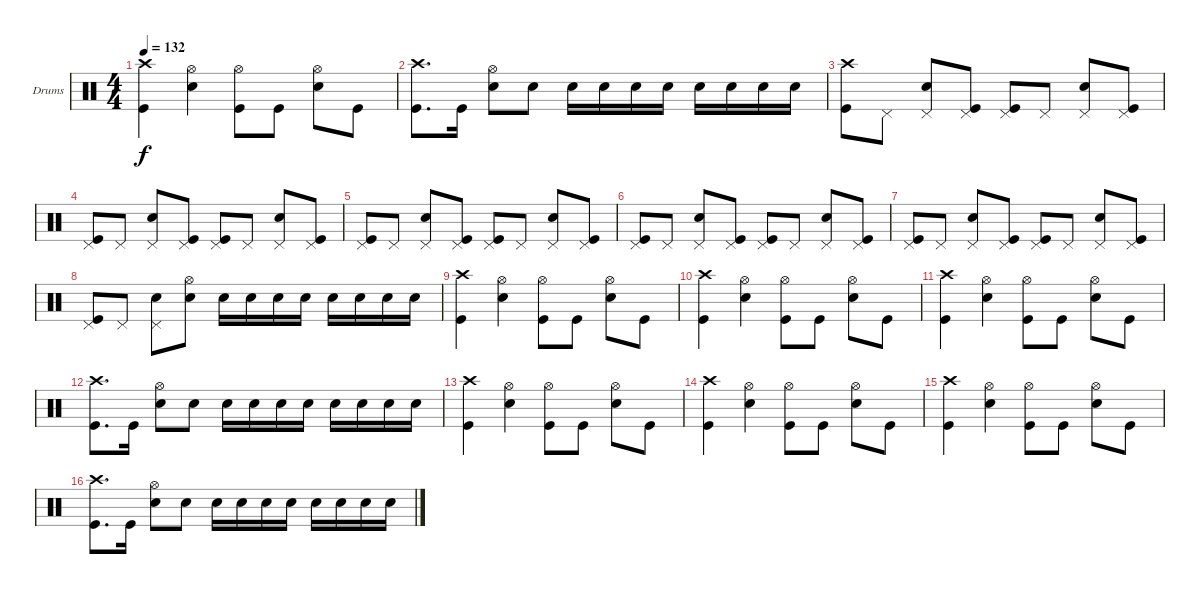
\defaultSystemsLayout 4
\bracketExtendMode groupsimilarinstruments
\firstSystemTrackNameOrientation horizontal
\otherSystemsTrackNameOrientation horizontal
\track ("Drumkit" "Drums") {instrument percussion}
\staff {score}
\articulation defaults
\ts (4 4)
\tempo 132
\clef neutral
\ks c
("Crash high (hit)" "Kick (hit)").4{dy f} ("Hi-Hat (open)" "Snare (hit) 2").4 ("Hi-Hat (open)" "Kick (hit)").8 "Kick (hit)".8 ("Hi-Hat (open)" "Snare (hit) 2").8 "Kick (hit)".8 |
("Crash high (hit)" "Kick (hit)").8{d} "Kick (hit)".16 ("Hi-Hat (open)" "Snare (hit) 2").8 "Snare (hit) 2".8 "Snare (hit) 2".16 "Snare (hit) 2".16 "Snare (hit) 2".16 "Snare (hit) 2".16 "Snare (hit) 2".16 "Snare (hit) 2".16 "Snare (hit) 2".16 "Snare (hit) 2".16 |
("Crash high (hit)" "Kick (hit)").8 "Pedal Hi-Hat (hit)".8 ("Pedal Hi-Hat (hit)" "Snare (hit) 2").8 ("Pedal Hi-Hat (hit)" "Kick (hit)").8 ("Pedal Hi-Hat (hit)" "Kick (hit)").8 "Pedal Hi-Hat (hit)".8 ("Pedal Hi-Hat (hit)" "Snare (hit) 2").8 ("Pedal Hi-Hat (hit)" "Kick (hit)").8 |
("Pedal Hi-Hat (hit)" "Kick (hit)").8 "Pedal Hi-Hat (hit)".8 ("Pedal Hi-Hat (hit)" "Snare (hit) 2").8 ("Pedal Hi-Hat (hit)" "Kick (hit)").8 ("Pedal Hi-Hat (hit)" "Kick (hit)").8 "Pedal Hi-Hat (hit)".8 ("Pedal Hi-Hat (hit)" "Snare (hit) 2").8 ("Pedal Hi-Hat (hit)" "Kick (hit)").8 |
("Pedal Hi-Hat (hit)" "Kick (hit)").8 "Pedal Hi-Hat (hit)".8 ("Pedal Hi-Hat (hit)" "Snare (hit) 2").8 ("Pedal Hi-Hat (hit)" "Kick (hit)").8 ("Pedal Hi-Hat (hit)" "Kick (hit)").8 "Pedal Hi-Hat (hit)".8 ("Pedal Hi-Hat (hit)" "Snare (hit) 2").8 ("Pedal Hi-Hat (hit)" "Kick (hit)").8 |
("Pedal Hi-Hat (hit)" "Kick (hit)").8 "Pedal Hi-Hat (hit)".8 ("Pedal Hi-Hat (hit)" "Snare (hit) 2").8 ("Pedal Hi-Hat (hit)" "Kick (hit)").8 ("Pedal Hi-Hat (hit)" "Kick (hit)").8 "Pedal Hi-Hat (hit)".8 ("Pedal Hi-Hat (hit)" "Snare (hit) 2").8 ("Pedal Hi-Hat (hit)" "Kick (hit)").8 |
("Pedal Hi-Hat (hit)" "Kick (hit)").8 "Pedal Hi-Hat (hit)".8 ("Pedal Hi-Hat (hit)" "Snare (hit) 2").8 ("Pedal Hi-Hat (hit)" "Kick (hit)").8 ("Pedal Hi-Hat (hit)" "Kick (hit)").8 "Pedal Hi-Hat (hit)".8 ("Pedal Hi-Hat (hit)" "Snare (hit) 2").8 ("Pedal Hi-Hat (hit)" "Kick (hit)").8 |
("Pedal Hi-Hat (hit)" "Kick (hit)").8 "Pedal Hi-Hat (hit)".8 ("Pedal Hi-Hat (hit)" "Snare (hit) 2").8 ("Hi-Hat (open)" "Snare (hit) 2").8 "Snare (hit) 2".16 "Snare (hit) 2".16 "Snare (hit) 2".16 "Snare (hit) 2".16 "Snare (hit) 2".16 "Snare (hit) 2".16 "Snare (hit) 2".16 "Snare (hit) 2".16 |
("Crash high (hit)" "Kick (hit)").4 ("Hi-Hat (open)" "Snare (hit) 2").4 ("Hi-Hat (open)" "Kick (hit)").8 "Kick (hit)".8 ("Hi-Hat (open)" "Snare (hit) 2").8 "Kick (hit)".8 |
("Crash high (hit)" "Kick (hit)").4 ("Hi-Hat (open)" "Snare (hit) 2").4 ("Hi-Hat (open)" "Kick (hit)").8 "Kick (hit)".8 ("Hi-Hat (open)" "Snare (hit) 2").8 "Kick (hit)".8 |
("Crash high (hit)" "Kick (hit)").4 ("Hi-Hat (open)" "Snare (hit) 2").4 ("Hi-Hat (open)" "Kick (hit)").8 "Kick (hit)".8 ("Hi-Hat (open)" "Snare (hit) 2").8 "Kick (hit)".8 |
("Crash high (hit)" "Kick (hit)").8{d} "Kick (hit)".16 ("Hi-Hat (open)" "Snare (hit) 2").8 "Snare (hit) 2".8 "Snare (hit) 2".16 "Snare (hit) 2".16 "Snare (hit) 2".16 "Snare (hit) 2".16 "Snare (hit) 2".16 "Snare (hit) 2".16 "Snare (hit) 2".16 "Snare (hit) 2".16 |
("Crash high (hit)" "Kick (hit)").4 ("Hi-Hat (open)" "Snare (hit) 2").4 ("Hi-Hat (open)" "Kick (hit)").8 "Kick (hit)".8 ("Hi-Hat (open)" "Snare (hit) 2").8 "Kick (hit)".8 |
("Crash high (hit)" "Kick (hit)").4 ("Hi-Hat (open)" "Snare (hit) 2").4 ("Hi-Hat (open)" "Kick (hit)").8 "Kick (hit)".8 ("Hi-Hat (open)" "Snare (hit) 2").8 "Kick (hit)".8 |
("Crash high (hit)" "Kick (hit)").4 ("Hi-Hat (open)" "Snare (hit) 2").4 ("Hi-Hat (open)" "Kick (hit)").8 "Kick (hit)".8 ("Hi-Hat (open)" "Snare (hit) 2").8 "Kick (hit)".8 |
("Crash high (hit)" "Kick (hit)").8{d} "Kick (hit)".16 ("Hi-Hat (open)" "Snare (hit) 2").8 "Snare (hit) 2".8 "Snare (hit) 2".16 "Snare (hit) 2".16 "Snare (hit) 2".16 "Snare (hit) 2".16 "Snare (hit) 2".16 "Snare (hit) 2".16 "Snare (hit) 2".16 "Snare (hit) 2".16
